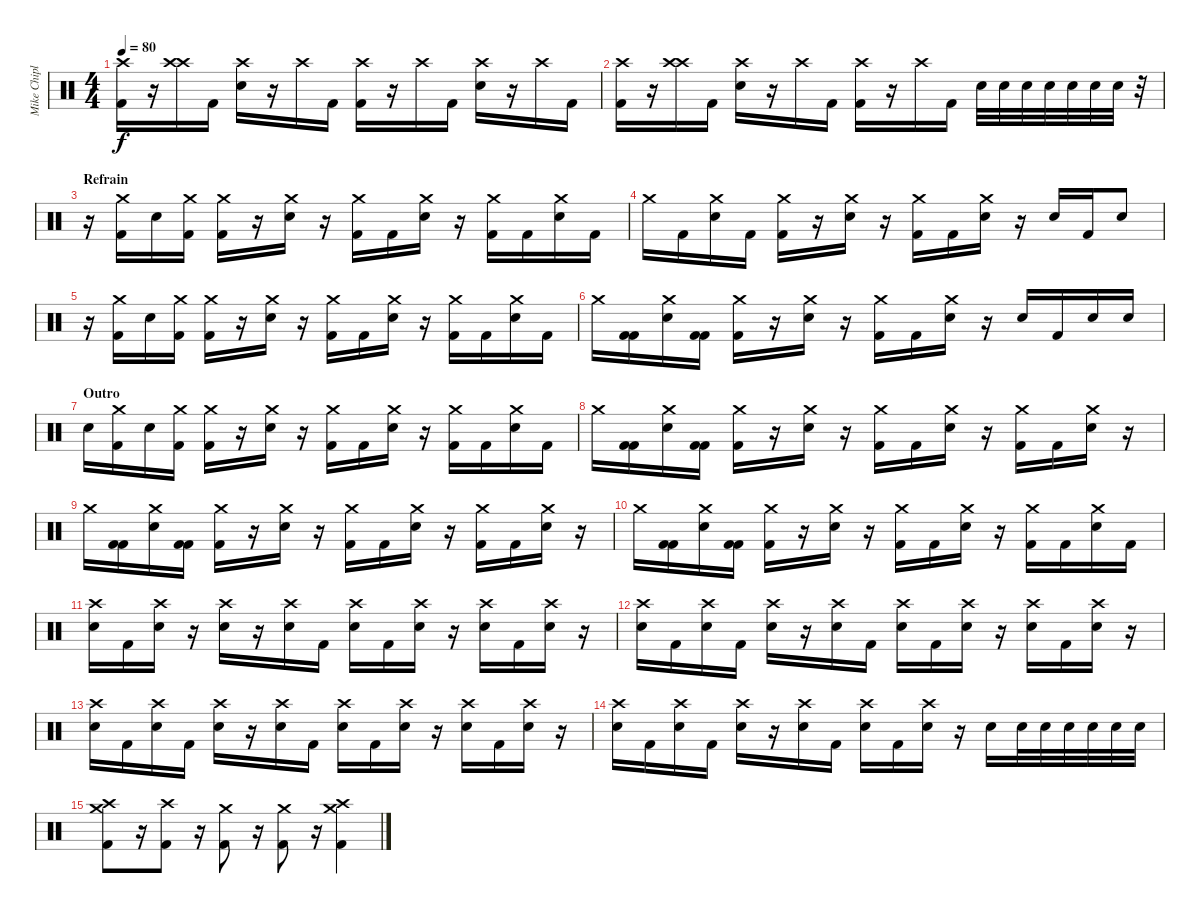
\track ("Mike Chiplin" "Mike Chipl") {instrument percussion}
\staff {score}
\articulation defaults
\ts (4 4)
\tempo 80
\clef neutral
\ks c
("Kick (hit) 2" "Crash high (hit)").16{dy f} r.16 ("Crash high (hit)" "Crash high (hit)").16 "Kick (hit) 2".16 ("Snare (hit) 2" "Crash high (hit)").16 r.16 "Crash high (hit)".16 "Kick (hit) 2".16 ("Kick (hit) 2" "Crash high (hit)").16 r.16 "Crash high (hit)".16 "Kick (hit) 2".16 ("Snare (hit) 2" "Crash high (hit)").16 r.16 "Crash high (hit)".16 "Kick (hit) 2".16 |
("Kick (hit) 2" "Crash high (hit)").16 r.16 ("Crash high (hit)" "Crash high (hit)").16 "Kick (hit) 2".16 ("Snare (hit) 2" "Crash high (hit)").16 r.16 "Crash high (hit)".16 "Kick (hit) 2".16 ("Kick (hit) 2" "Crash high (hit)").16 r.16 "Crash high (hit)".16 "Kick (hit) 2".16 "Snare (hit) 2".32 "Snare (hit) 2".32 "Snare (hit) 2".32 "Snare (hit) 2".32 "Snare (hit) 2".32 "Snare (hit) 2".32 "Snare (hit) 2".32 r.32 |
\section ("" "Refrain")
r.16 ("Crash medium (hit)" "Kick (hit) 2").16 "Snare (hit) 2".16 ("Crash medium (hit)" "Kick (hit) 2").16 ("Crash medium (hit)" "Kick (hit) 2").16 r.16 ("Crash medium (hit)" "Snare (hit) 2").16 r.16 ("Crash medium (hit)" "Kick (hit) 2").16 "Kick (hit) 2".16 ("Crash medium (hit)" "Snare (hit) 2").16 r.16 ("Crash medium (hit)" "Kick (hit) 2").16 "Kick (hit) 2".16 ("Crash medium (hit)" "Snare (hit) 2").16 "Kick (hit) 2".16 |
"Crash medium (hit)".16 "Kick (hit) 2".16 ("Snare (hit) 2" "Crash medium (hit)").16 "Kick (hit) 2".16 ("Kick (hit) 2" "Crash medium (hit)").16 r.16 ("Snare (hit) 2" "Crash medium (hit)").16 r.16 ("Kick (hit) 2" "Crash medium (hit)").16 "Kick (hit) 2".16 ("Crash medium (hit)" "Snare (hit) 2").16 r.16 "Snare (hit) 2".16 "Kick (hit) 2".16 "Snare (hit) 2".8 |
r.16 ("Crash medium (hit)" "Kick (hit) 2").16 "Snare (hit) 2".16 ("Crash medium (hit)" "Kick (hit) 2").16 ("Crash medium (hit)" "Kick (hit) 2").16 r.16 ("Crash medium (hit)" "Snare (hit) 2").16 r.16 ("Crash medium (hit)" "Kick (hit) 2").16 "Kick (hit) 2".16 ("Crash medium (hit)" "Snare (hit) 2").16 r.16 ("Crash medium (hit)" "Kick (hit) 2").16 "Kick (hit) 2".16 ("Crash medium (hit)" "Snare (hit) 2").16 "Kick (hit) 2".16 |
"Crash medium (hit)".16 ("Kick (hit) 2" "Kick (hit) 2").16 ("Crash medium (hit)" "Snare (hit) 2").16 ("Kick (hit) 2" "Kick (hit) 2").16 ("Crash medium (hit)" "Kick (hit) 2").16 r.16 ("Crash medium (hit)" "Snare (hit) 2").16 r.16 ("Crash medium (hit)" "Kick (hit) 2").16 "Kick (hit) 2".16 ("Crash medium (hit)" "Snare (hit) 2").16 r.16 "Snare (hit) 2".16 "Kick (hit) 2".16 "Snare (hit) 2".16 "Snare (hit) 2".16 |
\section ("" "Outro")
"Snare (hit) 2".16 ("Crash medium (hit)" "Kick (hit) 2").16 "Snare (hit) 2".16 ("Crash medium (hit)" "Kick (hit) 2").16 ("Crash medium (hit)" "Kick (hit) 2").16 r.16 ("Crash medium (hit)" "Snare (hit) 2").16 r.16 ("Crash medium (hit)" "Kick (hit) 2").16 "Kick (hit) 2".16 ("Crash medium (hit)" "Snare (hit) 2").16 r.16 ("Crash medium (hit)" "Kick (hit) 2").16 "Kick (hit) 2".16 ("Crash medium (hit)" "Snare (hit) 2").16 "Kick (hit) 2".16 |
"Crash medium (hit)".16 ("Kick (hit) 2" "Kick (hit) 2").16 ("Crash medium (hit)" "Snare (hit) 2").16 ("Kick (hit) 2" "Kick (hit) 2").16 ("Crash medium (hit)" "Kick (hit) 2").16 r.16 ("Crash medium (hit)" "Snare (hit) 2").16 r.16 ("Crash medium (hit)" "Kick (hit) 2").16 "Kick (hit) 2".16 ("Crash medium (hit)" "Snare (hit) 2").16 r.16 ("Crash medium (hit)" "Kick (hit) 2").16 "Kick (hit) 2".16 ("Crash medium (hit)" "Snare (hit) 2").16 r.16 |
"Crash medium (hit)".16 ("Kick (hit) 2" "Kick (hit) 2").16 ("Crash medium (hit)" "Snare (hit) 2").16 ("Kick (hit) 2" "Kick (hit) 2").16 ("Crash medium (hit)" "Kick (hit) 2").16 r.16 ("Crash medium (hit)" "Snare (hit) 2").16 r.16 ("Crash medium (hit)" "Kick (hit) 2").16 "Kick (hit) 2".16 ("Crash medium (hit)" "Snare (hit) 2").16 r.16 ("Crash medium (hit)" "Kick (hit) 2").16 "Kick (hit) 2".16 ("Crash medium (hit)" "Snare (hit) 2").16 r.16 |
"Crash medium (hit)".16 ("Kick (hit) 2" "Kick (hit) 2").16 ("Crash medium (hit)" "Snare (hit) 2").16 ("Kick (hit) 2" "Kick (hit) 2").16 ("Crash medium (hit)" "Kick (hit) 2").16 r.16 ("Crash medium (hit)" "Snare (hit) 2").16 r.16 ("Crash medium (hit)" "Kick (hit) 2").16 "Kick (hit) 2".16 ("Crash medium (hit)" "Snare (hit) 2").16 r.16 ("Crash medium (hit)" "Kick (hit) 2").16 "Kick (hit) 2".16 ("Crash medium (hit)" "Snare (hit) 2").16 "Kick (hit) 2".16 |
("Crash high (hit)" "Snare (hit) 2").16 "Kick (hit) 2".16 ("Crash high (hit)" "Snare (hit) 2").16 r.16 ("Crash high (hit)" "Snare (hit) 2").16 r.16 ("Crash high (hit)" "Snare (hit) 2").16 "Kick (hit) 2".16 ("Crash high (hit)" "Snare (hit) 2").16 "Kick (hit) 2".16 ("Crash high (hit)" "Snare (hit) 2").16 r.16 ("Crash high (hit)" "Snare (hit) 2").16 "Kick (hit) 2".16 ("Crash high (hit)" "Snare (hit) 2").16 r.16 |
("Crash high (hit)" "Snare (hit) 2").16 "Kick (hit) 2".16 ("Crash high (hit)" "Snare (hit) 2").16 "Kick (hit) 2".16 ("Crash high (hit)" "Snare (hit) 2").16 r.16 ("Crash high (hit)" "Snare (hit) 2").16 "Kick (hit) 2".16 ("Crash high (hit)" "Snare (hit) 2").16 "Kick (hit) 2".16 ("Crash high (hit)" "Snare (hit) 2").16 r.16 ("Crash high (hit)" "Snare (hit) 2").16 "Kick (hit) 2".16 ("Crash high (hit)" "Snare (hit) 2").16 r.16 |
("Crash high (hit)" "Snare (hit) 2").16 "Kick (hit) 2".16 ("Crash high (hit)" "Snare (hit) 2").16 "Kick (hit) 2".16 ("Crash high (hit)" "Snare (hit) 2").16 r.16 ("Crash high (hit)" "Snare (hit) 2").16 "Kick (hit) 2".16 ("Crash high (hit)" "Snare (hit) 2").16 "Kick (hit) 2".16 ("Crash high (hit)" "Snare (hit) 2").16 r.16 ("Crash high (hit)" "Snare (hit) 2").16 "Kick (hit) 2".16 ("Crash high (hit)" "Snare (hit) 2").16 r.16 |
("Crash high (hit)" "Snare (hit) 2").16 "Kick (hit) 2".16 ("Crash high (hit)" "Snare (hit) 2").16 "Kick (hit) 2".16 ("Crash high (hit)" "Snare (hit) 2").16 r.16 ("Crash high (hit)" "Snare (hit) 2").16 "Kick (hit) 2".16 ("Crash high (hit)" "Snare (hit) 2").16 "Kick (hit) 2".16 ("Crash high (hit)" "Snare (hit) 2").16 r.16 "Snare (hit) 2".16 "Snare (hit) 2".32 "Snare (hit) 2".32 "Snare (hit) 2".32 "Snare (hit) 2".32 "Snare (hit) 2".32 "Snare (hit) 2".32 |
("Kick (hit) 2" "Crash medium (hit)" "Crash high (hit)").8 r.16 ("Kick (hit) 2" "Crash high (hit)").8 r.16 ("Kick (hit) 2" "Crash medium (hit)").8 r.16 ("Kick (hit) 2" "Crash medium (hit)").8 r.16 ("Kick (hit) 2" "Crash medium (hit)" "Crash high (hit)").4
